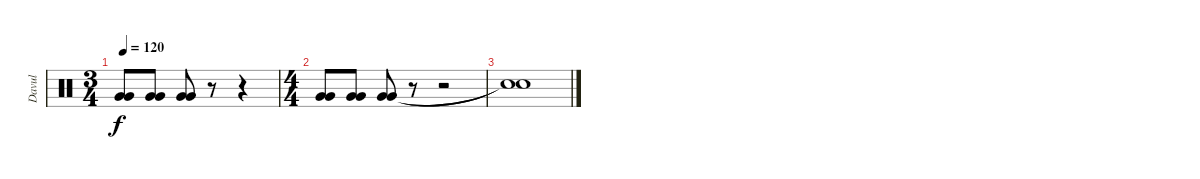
\track ("Davul" "Davul") {instrument percussion}
\staff {score}
\articulation defaults
\ts (3 4)
\tempo 120
\clef neutral
\ks c
("Very Low Tom (hit)" "Very Low Tom (hit)").8{dy f} ("Very Low Tom (hit)" "Very Low Tom (hit)").8 ("Very Low Tom (hit)" "Very Low Tom (hit)").8 r.8 r.4 |
\ts (4 4)
("Very Low Tom (hit)" "Very Low Tom (hit)").8 ("Very Low Tom (hit)" "Very Low Tom (hit)").8 ("Very Low Tom (hit)" "Very Low Tom (hit)").8 r.8 r.2 |
("Snare (hit)"{t} "Snare (hit)"{t}).1
